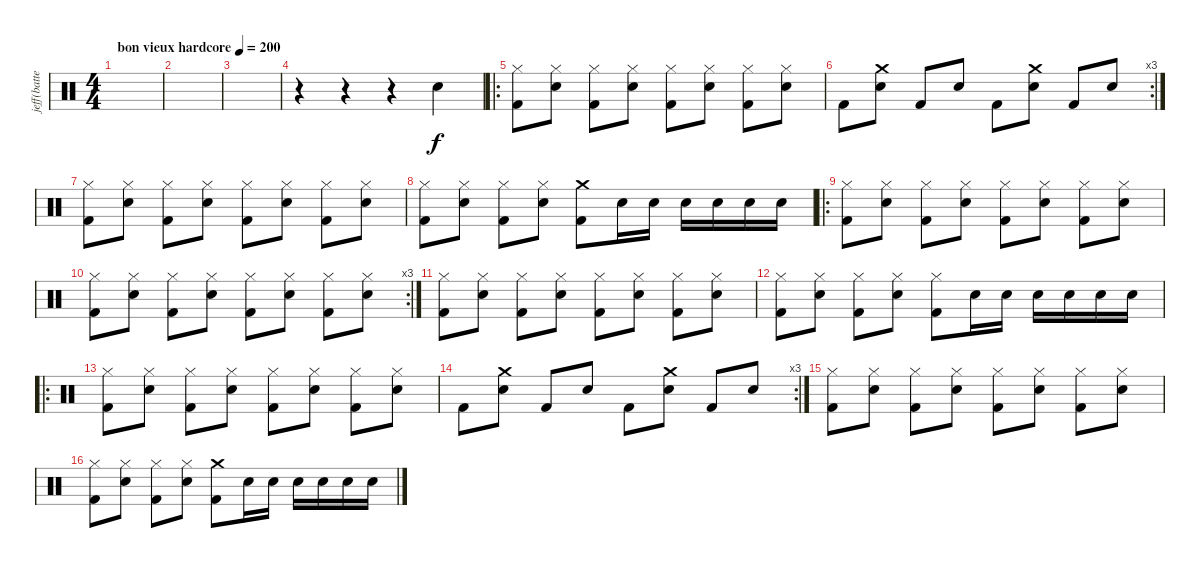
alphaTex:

\track ("jeff(batterie)" "jeff(batte") {instrument percussion}
\staff {score}
\articulation defaults
\ts (4 4)
\tempo (200 "bon vieux hardcore")
\clef neutral
\ks c
|
|
|
r.4 r.4 r.4 "Snare (hit) 2".4 |
\ro
("Hi-Hat (closed)" "Kick (hit) 2").8 ("Hi-Hat (closed)" "Snare (hit) 2").8 ("Hi-Hat (closed)" "Kick (hit) 2").8 ("Hi-Hat (closed)" "Snare (hit) 2").8 ("Hi-Hat (closed)" "Kick (hit) 2").8 ("Hi-Hat (closed)" "Snare (hit) 2").8 ("Hi-Hat (closed)" "Kick (hit) 2").8 ("Hi-Hat (closed)" "Snare (hit) 2").8 |
\rc 3 "Kick (hit) 2".8
("Crash medium (hit)" "Snare (hit) 2").8 "Kick (hit) 2".8 "Snare (hit) 2".8 "Kick (hit) 2".8 ("Crash medium (hit)" "Snare (hit) 2").8 "Kick (hit) 2".8 "Snare (hit) 2".8 |
("Hi-Hat (closed)" "Kick (hit) 2").8 ("Hi-Hat (closed)" "Snare (hit) 2").8 ("Hi-Hat (closed)" "Kick (hit) 2").8 ("Hi-Hat (closed)" "Snare (hit) 2").8 ("Hi-Hat (closed)" "Kick (hit) 2").8 ("Hi-Hat (closed)" "Snare (hit) 2").8 ("Hi-Hat (closed)" "Kick (hit) 2").8 ("Hi-Hat (closed)" "Snare (hit) 2").8 |
("Hi-Hat (closed)" "Kick (hit) 2").8 ("Hi-Hat (closed)" "Snare (hit) 2").8 ("Hi-Hat (closed)" "Kick (hit) 2").8 ("Hi-Hat (closed)" "Snare (hit) 2").8 ("Crash medium (hit)" "Kick (hit) 2").8 "Snare (hit) 2".16 "Snare (hit) 2".16 "Snare (hit) 2".16 "Snare (hit) 2".16 "Snare (hit) 2".16 "Snare (hit) 2".16 |
\ro
("Hi-Hat (closed)" "Kick (hit) 2").8 ("Hi-Hat (closed)" "Snare (hit) 2").8 ("Hi-Hat (closed)" "Kick (hit) 2").8 ("Hi-Hat (closed)" "Snare (hit) 2").8 ("Hi-Hat (closed)" "Kick (hit) 2").8 ("Hi-Hat (closed)" "Snare (hit) 2").8 ("Hi-Hat (closed)" "Kick (hit) 2").8 ("Hi-Hat (closed)" "Snare (hit) 2").8 |
\rc 3
("Hi-Hat (closed)" "Kick (hit) 2").8 ("Hi-Hat (closed)" "Snare (hit) 2").8 ("Hi-Hat (closed)" "Kick (hit) 2").8 ("Hi-Hat (closed)" "Snare (hit) 2").8 ("Hi-Hat (closed)" "Kick (hit) 2").8 ("Hi-Hat (closed)" "Snare (hit) 2").8 ("Hi-Hat (closed)" "Kick (hit) 2").8 ("Hi-Hat (closed)" "Snare (hit) 2").8 |
("Hi-Hat (closed)" "Kick (hit) 2").8 ("Hi-Hat (closed)" "Snare (hit) 2").8 ("Hi-Hat (closed)" "Kick (hit) 2").8 ("Hi-Hat (closed)" "Snare (hit) 2").8 ("Hi-Hat (closed)" "Kick (hit) 2").8 ("Hi-Hat (closed)" "Snare (hit) 2").8 ("Hi-Hat (closed)" "Kick (hit) 2").8 ("Hi-Hat (closed)" "Snare (hit) 2").8 |
("Hi-Hat (closed)" "Kick (hit) 2").8 ("Hi-Hat (closed)" "Snare (hit) 2").8 ("Hi-Hat (closed)" "Kick (hit) 2").8 ("Hi-Hat (closed)" "Snare (hit) 2").8 ("Hi-Hat (closed)" "Kick (hit) 2").8 "Snare (hit) 2".16 "Snare (hit) 2".16 "Snare (hit) 2".16 "Snare (hit) 2".16 "Snare (hit) 2".16 "Snare (hit) 2".16 |
\ro
("Hi-Hat (closed)" "Kick (hit) 2").8 ("Hi-Hat (closed)" "Snare (hit) 2").8 ("Hi-Hat (closed)" "Kick (hit) 2").8 ("Hi-Hat (closed)" "Snare (hit) 2").8 ("Hi-Hat (closed)" "Kick (hit) 2").8 ("Hi-Hat (closed)" "Snare (hit) 2").8 ("Hi-Hat (closed)" "Kick (hit) 2").8 ("Hi-Hat (closed)" "Snare (hit) 2").8 |
\rc 3 "Kick (hit) 2".8
("Crash medium (hit)" "Snare (hit) 2").8 "Kick (hit) 2".8 "Snare (hit) 2".8 "Kick (hit) 2".8 ("Crash medium (hit)" "Snare (hit) 2").8 "Kick (hit) 2".8 "Snare (hit) 2".8 |
("Hi-Hat (closed)" "Kick (hit) 2").8 ("Hi-Hat (closed)" "Snare (hit) 2").8 ("Hi-Hat (closed)" "Kick (hit) 2").8 ("Hi-Hat (closed)" "Snare (hit) 2").8 ("Hi-Hat (closed)" "Kick (hit) 2").8 ("Hi-Hat (closed)" "Snare (hit) 2").8 ("Hi-Hat (closed)" "Kick (hit) 2").8 ("Hi-Hat (closed)" "Snare (hit) 2").8 |
("Hi-Hat (closed)" "Kick (hit) 2").8 ("Hi-Hat (closed)" "Snare (hit) 2").8 ("Hi-Hat (closed)" "Kick (hit) 2").8 ("Hi-Hat (closed)" "Snare (hit) 2").8 ("Crash medium (hit)" "Kick (hit) 2").8 "Snare (hit) 2".16 "Snare (hit) 2".16 "Snare (hit) 2".16 "Snare (hit) 2".16 "Snare (hit) 2".16 "Snare (hit) 2".16
